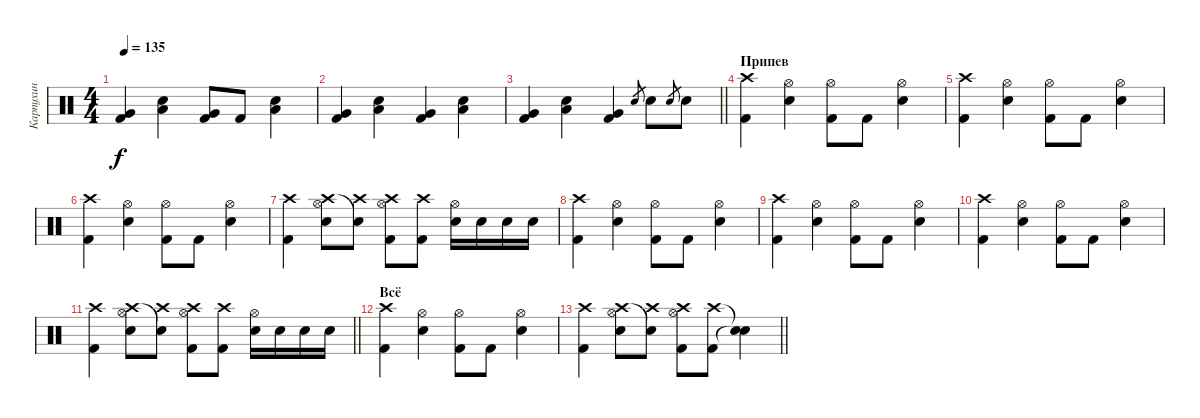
\track ("Карпухин" "Карпухин") {instrument percussion}
\staff {score}
\articulation defaults
\ts (4 4)
\tempo 135
\clef neutral
\ks c
("Very Low Tom (hit)" "Kick (hit) 2").4{dy f} ("Snare (hit) 2" "Low Floor Tom (hit)").4 ("Kick (hit) 2" "Very Low Tom (hit)").8 "Kick (hit) 2".8 ("Snare (hit) 2" "Low Floor Tom (hit)").4 |
("Very Low Tom (hit)" "Kick (hit) 2").4 ("Snare (hit) 2" "Low Floor Tom (hit)").4 ("Very Low Tom (hit)" "Kick (hit) 2").4 ("Snare (hit) 2" "Low Floor Tom (hit)").4 |
\barLineRight lightlight
("Very Low Tom (hit)" "Kick (hit) 2").4 ("Snare (hit) 2" "Low Floor Tom (hit)").4 ("Kick (hit) 2" "Very Low Tom (hit)").4 "Snare (hit) 2".8{gr} "Snare (hit) 2".8 "Snare (hit) 2".8{gr} "Snare (hit) 2".8 |
\section ("" "Припев")
("Crash high (hit)" "Kick (hit) 2").4 ("Snare (hit) 2" "Hi-Hat (open)").4 ("Kick (hit) 2" "Hi-Hat (open)").8 "Kick (hit) 2".8 ("Snare (hit) 2" "Hi-Hat (open)").4 |
("Crash high (hit)" "Kick (hit) 2").4 ("Snare (hit) 2" "Hi-Hat (open)").4 ("Kick (hit) 2" "Hi-Hat (open)").8 "Kick (hit) 2".8 ("Snare (hit) 2" "Hi-Hat (open)").4 |
("Crash high (hit)" "Kick (hit) 2").4 ("Snare (hit) 2" "Hi-Hat (open)").4 ("Kick (hit) 2" "Hi-Hat (open)").8 "Kick (hit) 2".8 ("Snare (hit) 2" "Hi-Hat (open)").4 |
("Crash high (hit)" "Kick (hit) 2").4 ("Hi-Hat (open)" "Crash high (hit)" "Snare (hit) 2").8 ("Crash high (hit)" "Snare (hit) 2"{t}).8 ("Hi-Hat (open)" "Crash high (hit)" "Kick (hit) 2").8 ("Crash high (hit)" "Kick (hit) 2").8 ("Hi-Hat (open)" "Snare (hit) 2").16 "Snare (hit) 2".16 "Snare (hit) 2".16 "Snare (hit) 2".16 |
("Crash high (hit)" "Kick (hit) 2").4 ("Snare (hit) 2" "Hi-Hat (open)").4 ("Kick (hit) 2" "Hi-Hat (open)").8 "Kick (hit) 2".8 ("Snare (hit) 2" "Hi-Hat (open)").4 |
("Crash high (hit)" "Kick (hit) 2").4 ("Snare (hit) 2" "Hi-Hat (open)").4 ("Kick (hit) 2" "Hi-Hat (open)").8 "Kick (hit) 2".8 ("Snare (hit) 2" "Hi-Hat (open)").4 |
("Crash high (hit)" "Kick (hit) 2").4 ("Snare (hit) 2" "Hi-Hat (open)").4 ("Kick (hit) 2" "Hi-Hat (open)").8 "Kick (hit) 2".8 ("Snare (hit) 2" "Hi-Hat (open)").4 |
\barLineRight lightlight
("Crash high (hit)" "Kick (hit) 2").4 ("Hi-Hat (open)" "Crash high (hit)" "Snare (hit) 2").8 ("Crash high (hit)" "Snare (hit) 2"{t}).8 ("Hi-Hat (open)" "Crash high (hit)" "Kick (hit) 2").8 ("Crash high (hit)" "Kick (hit) 2").8 ("Hi-Hat (open)" "Snare (hit) 2").16 "Snare (hit) 2".16 "Snare (hit) 2".16 "Snare (hit) 2".16 |
\section ("" "Всё")
("Crash high (hit)" "Kick (hit) 2").4 ("Snare (hit) 2" "Hi-Hat (open)").4 ("Kick (hit) 2" "Hi-Hat (open)").8 "Kick (hit) 2".8 ("Snare (hit) 2" "Hi-Hat (open)").4 |
\barLineRight lightlight
("Crash high (hit)" "Kick (hit) 2").4 ("Hi-Hat (open)" "Crash high (hit)" "Snare (hit) 2").8 ("Crash high (hit)" "Snare (hit) 2"{t}).8 ("Hi-Hat (open)" "Crash high (hit)" "Kick (hit) 2").8 ("Crash high (hit)" "Kick (hit) 2").8 ("Snare (hit)"{t} "Snare (hit)"{t}).4
